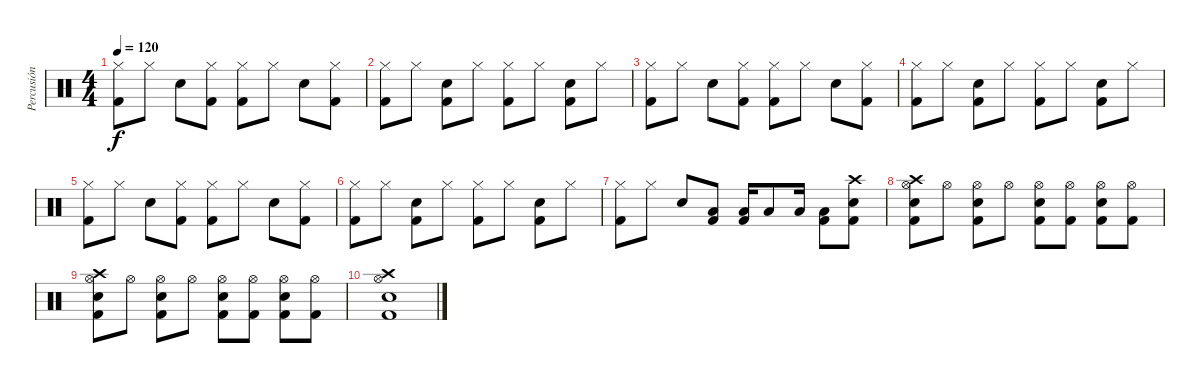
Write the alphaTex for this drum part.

\track ("Percusión" "Percusión") {instrument percussion}
\staff {score}
\articulation defaults
\ts (4 4)
\tempo 120
\clef neutral
\ks c
("Hi-Hat (closed)" "Kick (hit) 2").8{dy f} "Hi-Hat (closed)".8 "Electric Snare (hit)".8 ("Hi-Hat (closed)" "Kick (hit) 2").8 ("Hi-Hat (closed)" "Kick (hit) 2").8 "Hi-Hat (closed)".8 "Electric Snare (hit)".8 ("Hi-Hat (closed)" "Kick (hit) 2").8 |
("Hi-Hat (closed)" "Kick (hit) 2").8 "Hi-Hat (closed)".8 ("Electric Snare (hit)" "Kick (hit) 2").8 "Hi-Hat (closed)".8 ("Hi-Hat (closed)" "Kick (hit) 2").8 "Hi-Hat (closed)".8 ("Electric Snare (hit)" "Kick (hit) 2").8 "Hi-Hat (closed)".8 |
("Hi-Hat (closed)" "Kick (hit) 2").8 "Hi-Hat (closed)".8 "Electric Snare (hit)".8 ("Hi-Hat (closed)" "Kick (hit) 2").8 ("Hi-Hat (closed)" "Kick (hit) 2").8 "Hi-Hat (closed)".8 "Electric Snare (hit)".8 ("Hi-Hat (closed)" "Kick (hit) 2").8 |
("Hi-Hat (closed)" "Kick (hit) 2").8 "Hi-Hat (closed)".8 ("Electric Snare (hit)" "Kick (hit) 2").8 "Hi-Hat (closed)".8 ("Hi-Hat (closed)" "Kick (hit) 2").8 "Hi-Hat (closed)".8 ("Electric Snare (hit)" "Kick (hit) 2").8 "Hi-Hat (closed)".8 |
("Hi-Hat (closed)" "Kick (hit) 2").8 "Hi-Hat (closed)".8 "Electric Snare (hit)".8 ("Hi-Hat (closed)" "Kick (hit) 2").8 ("Hi-Hat (closed)" "Kick (hit) 2").8 "Hi-Hat (closed)".8 "Electric Snare (hit)".8 ("Hi-Hat (closed)" "Kick (hit) 2").8 |
("Hi-Hat (closed)" "Kick (hit) 2").8 "Hi-Hat (closed)".8 ("Electric Snare (hit)" "Kick (hit) 2").8 "Hi-Hat (closed)".8 ("Hi-Hat (closed)" "Kick (hit) 2").8 "Hi-Hat (closed)".8 ("Electric Snare (hit)" "Kick (hit) 2").8 "Hi-Hat (closed)".8 |
("Hi-Hat (closed)" "Kick (hit) 2").8 "Hi-Hat (closed)".8 "Electric Snare (hit)".8 ("Low Floor Tom (hit)" "Kick (hit) 2").8 ("Low Floor Tom (hit)" "Kick (hit) 2").16 "Low Floor Tom (hit)".8 "Low Floor Tom (hit)".16 ("Low Floor Tom (hit)" "Kick (hit) 2").8 ("Crash high (hit)" "Electric Snare (hit)" "Kick (hit) 2").8 |
("Crash high (hit)" "Hi-Hat (open)" "Electric Snare (hit)" "Kick (hit) 2").8 "Hi-Hat (open)".8 ("Hi-Hat (open)" "Electric Snare (hit)" "Kick (hit) 2").8 "Hi-Hat (open)".8 ("Hi-Hat (open)" "Electric Snare (hit)" "Kick (hit) 2").8 ("Hi-Hat (open)" "Kick (hit) 2").8 ("Hi-Hat (open)" "Electric Snare (hit)" "Kick (hit) 2").8 ("Hi-Hat (open)" "Kick (hit) 2").8 |
("Crash high (hit)" "Hi-Hat (open)" "Electric Snare (hit)" "Kick (hit) 2").8 "Hi-Hat (open)".8 ("Hi-Hat (open)" "Electric Snare (hit)" "Kick (hit) 2").8 "Hi-Hat (open)".8 ("Hi-Hat (open)" "Electric Snare (hit)" "Kick (hit) 2").8 ("Hi-Hat (open)" "Kick (hit) 2").8 ("Hi-Hat (open)" "Electric Snare (hit)" "Kick (hit) 2").8 ("Hi-Hat (open)" "Kick (hit) 2").8 |
("Crash high (hit)" "Hi-Hat (open)" "Electric Snare (hit)" "Kick (hit) 2").1
